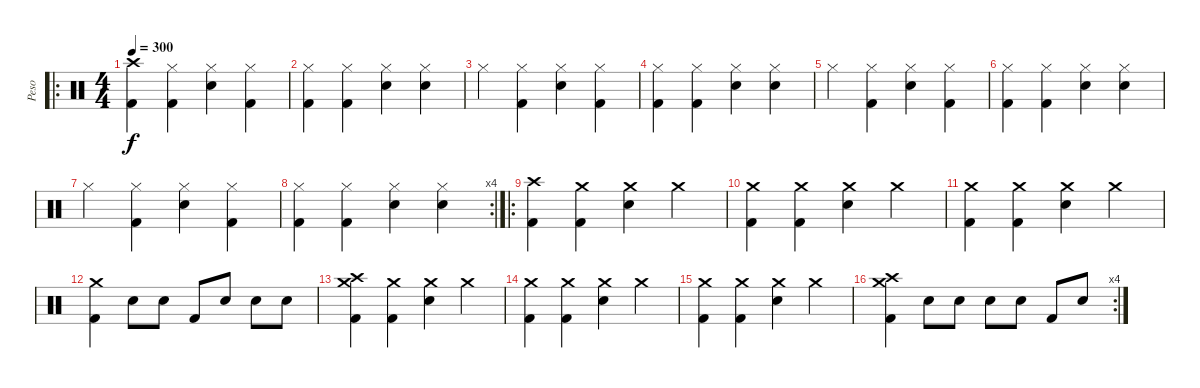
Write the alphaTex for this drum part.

\track ("Peso" "Peso") {instrument percussion}
\staff {score}
\articulation defaults
\ro
\ts (4 4)
\tempo 300
\clef neutral
\ks c
("Crash high (hit)" "Kick (hit) 2").4{dy f} ("Hi-Hat (closed)" "Kick (hit) 2").4 ("Hi-Hat (closed)" "Snare (hit) 2").4 ("Hi-Hat (closed)" "Kick (hit) 2").4 |
("Hi-Hat (closed)" "Kick (hit) 2").4 ("Hi-Hat (closed)" "Kick (hit) 2").4 ("Hi-Hat (closed)" "Snare (hit) 2").4 ("Hi-Hat (closed)" "Snare (hit) 2").4 |
"Hi-Hat (closed)".4 ("Hi-Hat (closed)" "Kick (hit) 2").4 ("Hi-Hat (closed)" "Snare (hit) 2").4 ("Hi-Hat (closed)" "Kick (hit) 2").4 |
("Hi-Hat (closed)" "Kick (hit) 2").4 ("Hi-Hat (closed)" "Kick (hit) 2").4 ("Hi-Hat (closed)" "Snare (hit) 2").4 ("Hi-Hat (closed)" "Snare (hit) 2").4 |
"Hi-Hat (closed)".4 ("Hi-Hat (closed)" "Kick (hit) 2").4 ("Hi-Hat (closed)" "Snare (hit) 2").4 ("Hi-Hat (closed)" "Kick (hit) 2").4 |
("Hi-Hat (closed)" "Kick (hit) 2").4 ("Hi-Hat (closed)" "Kick (hit) 2").4 ("Hi-Hat (closed)" "Snare (hit) 2").4 ("Hi-Hat (closed)" "Snare (hit) 2").4 |
"Hi-Hat (closed)".4 ("Hi-Hat (closed)" "Kick (hit) 2").4 ("Hi-Hat (closed)" "Snare (hit) 2").4 ("Hi-Hat (closed)" "Kick (hit) 2").4 |
\rc 4
("Hi-Hat (closed)" "Kick (hit) 2").4 ("Hi-Hat (closed)" "Kick (hit) 2").4 ("Hi-Hat (closed)" "Snare (hit) 2").4 ("Hi-Hat (closed)" "Snare (hit) 2").4 |
\ro
("Crash high (hit)" "Kick (hit) 2").4 ("Crash medium (hit)" "Kick (hit) 2").4 ("Crash medium (hit)" "Snare (hit) 2").4 "Crash medium (hit)".4 |
("Crash medium (hit)" "Kick (hit) 2").4 ("Crash medium (hit)" "Kick (hit) 2").4 ("Crash medium (hit)" "Snare (hit) 2").4 "Crash medium (hit)".4 |
("Crash medium (hit)" "Kick (hit) 2").4 ("Crash medium (hit)" "Kick (hit) 2").4 ("Crash medium (hit)" "Snare (hit) 2").4 "Crash medium (hit)".4 |
("Crash medium (hit)" "Kick (hit) 2").4 "Snare (hit) 2".8 "Snare (hit) 2".8 "Kick (hit) 2".8 "Snare (hit) 2".8 "Snare (hit) 2".8 "Snare (hit) 2".8 |
("Crash high (hit)" "Crash medium (hit)" "Kick (hit) 2").4 ("Crash medium (hit)" "Kick (hit) 2").4 ("Crash medium (hit)" "Snare (hit) 2").4 "Crash medium (hit)".4 |
("Crash medium (hit)" "Kick (hit) 2").4 ("Crash medium (hit)" "Kick (hit) 2").4 ("Crash medium (hit)" "Snare (hit) 2").4 "Crash medium (hit)".4 |
("Crash medium (hit)" "Kick (hit) 2").4 ("Crash medium (hit)" "Kick (hit) 2").4 ("Crash medium (hit)" "Snare (hit) 2").4 "Crash medium (hit)".4 |
\rc 4
("Crash medium (hit)" "Crash high (hit)" "Kick (hit) 2").4 "Snare (hit) 2".8 "Snare (hit) 2".8 "Snare (hit) 2".8 "Snare (hit) 2".8 "Kick (hit) 2".8 "Snare (hit) 2".8
